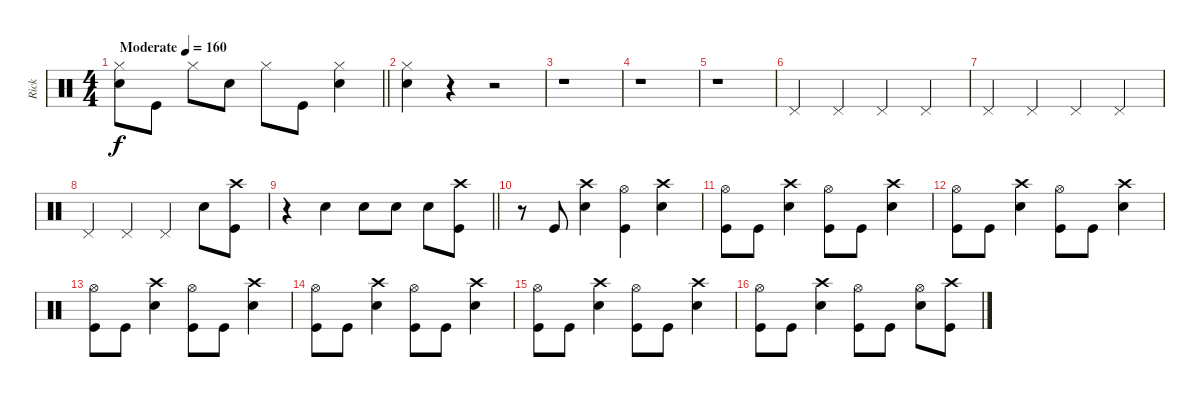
\track ("Rick" "Rick") {instrument percussion}
\staff {score}
\articulation defaults
\ts (4 4)
\tempo (160 "Moderate")
\clef neutral
\barLineRight lightlight
\ks c
("Hi-Hat (closed)" "Snare (hit) 2").8{dy f} "Kick (hit)".8 "Hi-Hat (closed)".8 "Snare (hit) 2".8 "Hi-Hat (closed)".8 "Kick (hit)".8 ("Hi-Hat (closed)" "Snare (hit) 2").4 |
("Hi-Hat (closed)" "Snare (hit) 2").4 r.4 r.2 |
r.1 |
r.1 |
r.1 |
"Pedal Hi-Hat (hit)".4 "Pedal Hi-Hat (hit)".4 "Pedal Hi-Hat (hit)".4 "Pedal Hi-Hat (hit)".4 |
"Pedal Hi-Hat (hit)".4 "Pedal Hi-Hat (hit)".4 "Pedal Hi-Hat (hit)".4 "Pedal Hi-Hat (hit)".4 |
"Pedal Hi-Hat (hit)".4 "Pedal Hi-Hat (hit)".4 "Pedal Hi-Hat (hit)".4 "Snare (hit) 2".8 ("Crash high (hit)" "Kick (hit)").8 |
\barLineRight lightlight
r.4 "Snare (hit) 2".4 "Snare (hit) 2".8 "Snare (hit) 2".8 "Snare (hit) 2".8 ("Crash high (hit)" "Kick (hit)").8 |
r.8 "Kick (hit)".8 ("Crash high (hit)" "Snare (hit) 2").4 ("Hi-Hat (open)" "Kick (hit)").4 ("Crash high (hit)" "Snare (hit) 2").4 |
("Hi-Hat (open)" "Kick (hit)").8 "Kick (hit)".8 ("Crash high (hit)" "Snare (hit) 2").4 ("Hi-Hat (open)" "Kick (hit)").8 "Kick (hit)".8 ("Crash high (hit)" "Snare (hit) 2").4 |
("Hi-Hat (open)" "Kick (hit)").8 "Kick (hit)".8 ("Crash high (hit)" "Snare (hit) 2").4 ("Hi-Hat (open)" "Kick (hit)").8 "Kick (hit)".8 ("Crash high (hit)" "Snare (hit) 2").4 |
("Hi-Hat (open)" "Kick (hit)").8 "Kick (hit)".8 ("Crash high (hit)" "Snare (hit) 2").4 ("Hi-Hat (open)" "Kick (hit)").8 "Kick (hit)".8 ("Crash high (hit)" "Snare (hit) 2").4 |
("Hi-Hat (open)" "Kick (hit)").8 "Kick (hit)".8 ("Crash high (hit)" "Snare (hit) 2").4 ("Hi-Hat (open)" "Kick (hit)").8 "Kick (hit)".8 ("Crash high (hit)" "Snare (hit) 2").4 |
("Hi-Hat (open)" "Kick (hit)").8 "Kick (hit)".8 ("Crash high (hit)" "Snare (hit) 2").4 ("Hi-Hat (open)" "Kick (hit)").8 "Kick (hit)".8 ("Crash high (hit)" "Snare (hit) 2").4 |
("Hi-Hat (open)" "Kick (hit)").8 "Kick (hit)".8 ("Crash high (hit)" "Snare (hit) 2").4 ("Hi-Hat (open)" "Kick (hit)").8 "Kick (hit)".8 ("Hi-Hat (open)" "Snare (hit) 2").8 ("Crash high (hit)" "Kick (hit)").8
